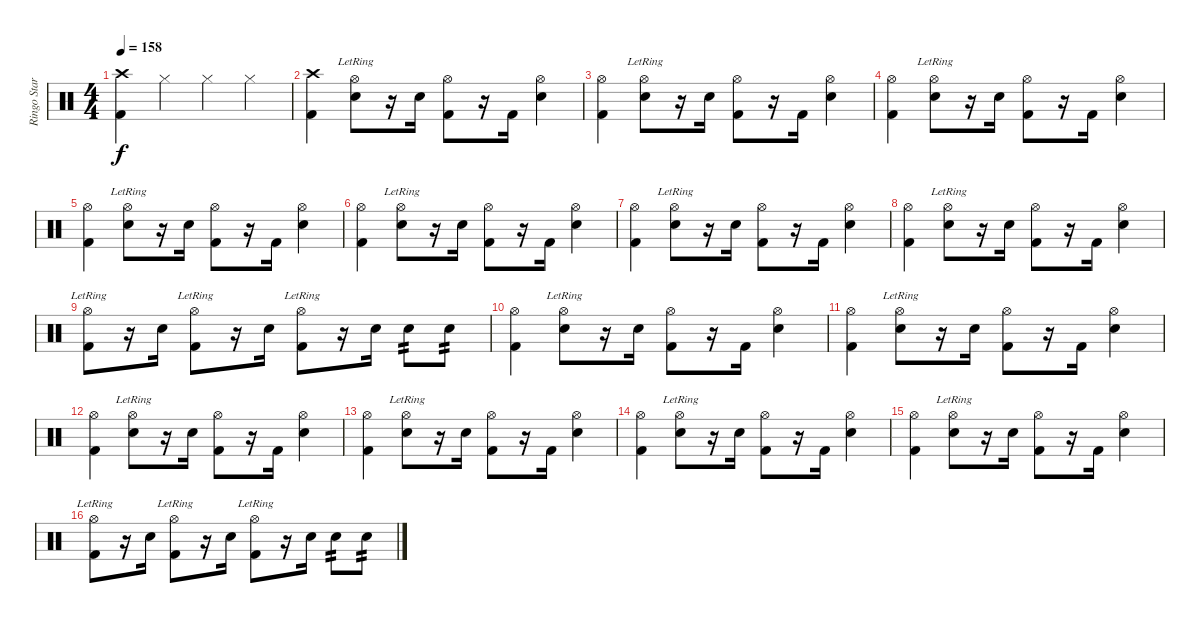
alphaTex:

\track ("Ringo Star" "Ringo Star") {instrument percussion}
\staff {score}
\articulation defaults
\ts (4 4)
\tempo 158
\clef neutral
\ks c
("Crash high (hit)" "Kick (hit) 2").4{dy f} "Hi-Hat (closed)".4 "Hi-Hat (closed)".4 "Hi-Hat (closed)".4 |
("Crash high (hit)" "Kick (hit) 2").4 ("Hi-Hat (open)"{lr} "Snare (hit) 2").8 r.16 "Snare (hit) 2".16 ("Hi-Hat (open)" "Kick (hit) 2").8 r.16 "Kick (hit) 2".16 ("Hi-Hat (open)" "Snare (hit) 2").4 |
("Hi-Hat (open)" "Kick (hit) 2").4 ("Hi-Hat (open)"{lr} "Snare (hit) 2").8 r.16 "Snare (hit) 2".16 ("Hi-Hat (open)" "Kick (hit) 2").8 r.16 "Kick (hit) 2".16 ("Hi-Hat (open)" "Snare (hit) 2").4 |
("Hi-Hat (open)" "Kick (hit) 2").4 ("Hi-Hat (open)"{lr} "Snare (hit) 2").8 r.16 "Snare (hit) 2".16 ("Hi-Hat (open)" "Kick (hit) 2").8 r.16 "Kick (hit) 2".16 ("Hi-Hat (open)" "Snare (hit) 2").4 |
("Hi-Hat (open)" "Kick (hit) 2").4 ("Hi-Hat (open)"{lr} "Snare (hit) 2").8 r.16 "Snare (hit) 2".16 ("Hi-Hat (open)" "Kick (hit) 2").8 r.16 "Kick (hit) 2".16 ("Hi-Hat (open)" "Snare (hit) 2").4 |
("Hi-Hat (open)" "Kick (hit) 2").4 ("Hi-Hat (open)"{lr} "Snare (hit) 2").8 r.16 "Snare (hit) 2".16 ("Hi-Hat (open)" "Kick (hit) 2").8 r.16 "Kick (hit) 2".16 ("Hi-Hat (open)" "Snare (hit) 2").4 |
("Hi-Hat (open)" "Kick (hit) 2").4 ("Hi-Hat (open)"{lr} "Snare (hit) 2").8 r.16 "Snare (hit) 2".16 ("Hi-Hat (open)" "Kick (hit) 2").8 r.16 "Kick (hit) 2".16 ("Hi-Hat (open)" "Snare (hit) 2").4 |
("Hi-Hat (open)" "Kick (hit) 2").4 ("Hi-Hat (open)"{lr} "Snare (hit) 2").8 r.16 "Snare (hit) 2".16 ("Hi-Hat (open)" "Kick (hit) 2").8 r.16 "Kick (hit) 2".16 ("Hi-Hat (open)" "Snare (hit) 2").4 |
("Hi-Hat (open)"{lr} "Kick (hit) 2").8 r.16 "Snare (hit) 2".16 ("Hi-Hat (open)"{lr} "Kick (hit) 2").8 r.16 "Snare (hit) 2".16 ("Hi-Hat (open)"{lr} "Kick (hit) 2").8 r.16 "Snare (hit) 2".16 "Snare (hit) 2".8{tp 2} "Snare (hit) 2".8{tp 2} |
("Hi-Hat (open)" "Kick (hit) 2").4 ("Hi-Hat (open)"{lr} "Snare (hit) 2").8 r.16 "Snare (hit) 2".16 ("Hi-Hat (open)" "Kick (hit) 2").8 r.16 "Kick (hit) 2".16 ("Hi-Hat (open)" "Snare (hit) 2").4 |
("Hi-Hat (open)" "Kick (hit) 2").4 ("Hi-Hat (open)"{lr} "Snare (hit) 2").8 r.16 "Snare (hit) 2".16 ("Hi-Hat (open)" "Kick (hit) 2").8 r.16 "Kick (hit) 2".16 ("Hi-Hat (open)" "Snare (hit) 2").4 |
("Hi-Hat (open)" "Kick (hit) 2").4 ("Hi-Hat (open)"{lr} "Snare (hit) 2").8 r.16 "Snare (hit) 2".16 ("Hi-Hat (open)" "Kick (hit) 2").8 r.16 "Kick (hit) 2".16 ("Hi-Hat (open)" "Snare (hit) 2").4 |
("Hi-Hat (open)" "Kick (hit) 2").4 ("Hi-Hat (open)"{lr} "Snare (hit) 2").8 r.16 "Snare (hit) 2".16 ("Hi-Hat (open)" "Kick (hit) 2").8 r.16 "Kick (hit) 2".16 ("Hi-Hat (open)" "Snare (hit) 2").4 |
("Hi-Hat (open)" "Kick (hit) 2").4 ("Hi-Hat (open)"{lr} "Snare (hit) 2").8 r.16 "Snare (hit) 2".16 ("Hi-Hat (open)" "Kick (hit) 2").8 r.16 "Kick (hit) 2".16 ("Hi-Hat (open)" "Snare (hit) 2").4 |
("Hi-Hat (open)" "Kick (hit) 2").4 ("Hi-Hat (open)"{lr} "Snare (hit) 2").8 r.16 "Snare (hit) 2".16 ("Hi-Hat (open)" "Kick (hit) 2").8 r.16 "Kick (hit) 2".16 ("Hi-Hat (open)" "Snare (hit) 2").4 |
("Hi-Hat (open)"{lr} "Kick (hit) 2").8 r.16 "Snare (hit) 2".16 ("Hi-Hat (open)"{lr} "Kick (hit) 2").8 r.16 "Snare (hit) 2".16 ("Hi-Hat (open)"{lr} "Kick (hit) 2").8 r.16 "Snare (hit) 2".16 "Snare (hit) 2".8{tp 2} "Snare (hit) 2".8{tp 2}
